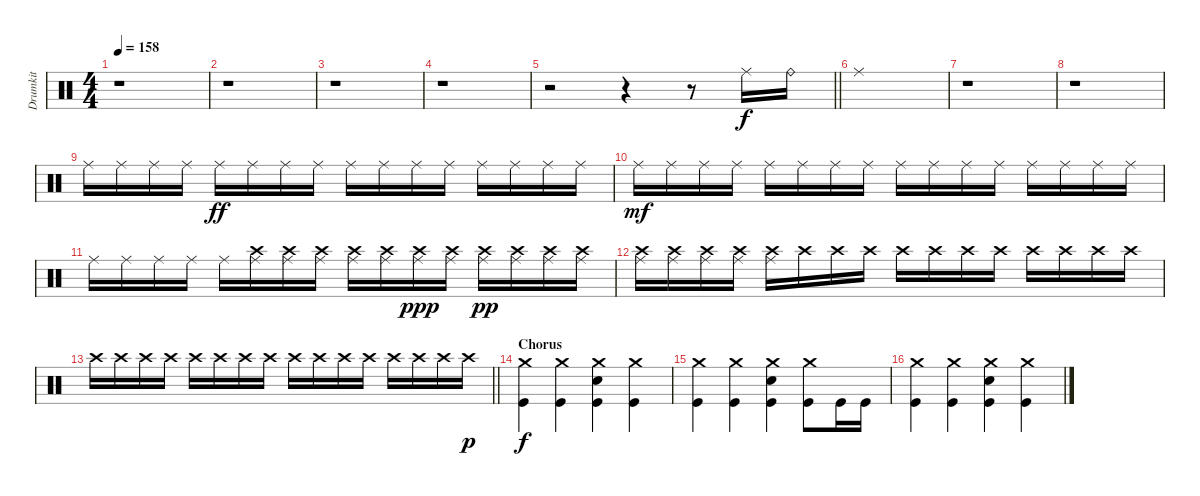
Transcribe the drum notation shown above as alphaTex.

\track ("Drumkit" "Drumkit") {instrument percussion}
\staff {score}
\articulation defaults
\ts (4 4)
\tempo 158
\clef neutral
\ks c
r.1{dy f} |
r.1 |
r.1 |
r.1 |
\barLineRight lightlight
r.2 r.4 r.8 "Ride (middle)".16 "Ride (bell)".16 |
\section ("" "")
"Ride (middle)".1 |
r.1 |
r.1 |
"Ride (middle)".16 "Ride (middle)".16 "Ride (middle)".16 "Ride (middle)".16 "Ride (middle)".16{dy ff} "Ride (middle)".16 "Ride (middle)".16 "Ride (middle)".16 "Ride (middle)".16 "Ride (middle)".16 "Ride (middle)".16 "Ride (middle)".16 "Ride (middle)".16 "Ride (middle)".16 "Ride (middle)".16 "Ride (middle)".16 |
"Ride (middle)".16{dy mf} "Ride (middle)".16 "Ride (middle)".16 "Ride (middle)".16 "Ride (middle)".16 "Ride (middle)".16 "Ride (middle)".16 "Ride (middle)".16 "Ride (middle)".16 "Ride (middle)".16 "Ride (middle)".16 "Ride (middle)".16 "Ride (middle)".16 "Ride (middle)".16 "Ride (middle)".16 "Ride (middle)".16 |
"Ride (middle)".16 "Ride (middle)".16 "Ride (middle)".16 "Ride (middle)".16 "Ride (middle)".16 ("Ride (middle)" "Crash high (hit)").16 ("Ride (middle)" "Crash high (hit)").16 ("Ride (middle)" "Crash high (hit)").16 ("Ride (middle)" "Crash high (hit)").16 ("Ride (middle)" "Crash high (hit)").16 ("Ride (middle)" "Crash high (hit)").16{dy ppp} ("Ride (middle)" "Crash high (hit)").16 ("Ride (middle)" "Crash high (hit)").16{dy pp} ("Ride (middle)" "Crash high (hit)").16 ("Ride (middle)" "Crash high (hit)").16 ("Ride (middle)" "Crash high (hit)").16 |
("Crash high (hit)" "Ride (middle)").16 ("Crash high (hit)" "Ride (middle)").16 ("Crash high (hit)" "Ride (middle)").16 ("Crash high (hit)" "Ride (middle)").16 ("Crash high (hit)" "Ride (middle)").16 "Crash high (hit)".16 "Crash high (hit)".16 "Crash high (hit)".16 "Crash high (hit)".16 "Crash high (hit)".16 "Crash high (hit)".16 "Crash high (hit)".16 "Crash high (hit)".16 "Crash high (hit)".16 "Crash high (hit)".16 "Crash high (hit)".16 |
\barLineRight lightlight "Crash high (hit)".16 "Crash high (hit)".16 "Crash high (hit)".16 "Crash high (hit)".16 "Crash high (hit)".16 "Crash high (hit)".16 "Crash high (hit)".16 "Crash high (hit)".16 "Crash high (hit)".16 "Crash high (hit)".16 "Crash high (hit)".16 "Crash high (hit)".16 "Crash high (hit)".16 "Crash high (hit)".16 "Crash high (hit)".16 "Crash high (hit)".16{dy p}
|
\section ("" "Chorus")
("Crash medium (hit)" "Kick (hit)").4{dy f} ("Crash medium (hit)" "Kick (hit)").4 ("Crash medium (hit)" "Snare (hit) 2" "Kick (hit)").4 ("Crash medium (hit)" "Kick (hit)").4 |
("Crash medium (hit)" "Kick (hit)").4 ("Crash medium (hit)" "Kick (hit)").4 ("Crash medium (hit)" "Snare (hit) 2" "Kick (hit)").4 ("Crash medium (hit)" "Kick (hit)").8 "Kick (hit)".16 "Kick (hit)".16 |
("Crash medium (hit)" "Kick (hit)").4 ("Crash medium (hit)" "Kick (hit)").4 ("Crash medium (hit)" "Snare (hit) 2" "Kick (hit)").4 ("Crash medium (hit)" "Kick (hit)").4
